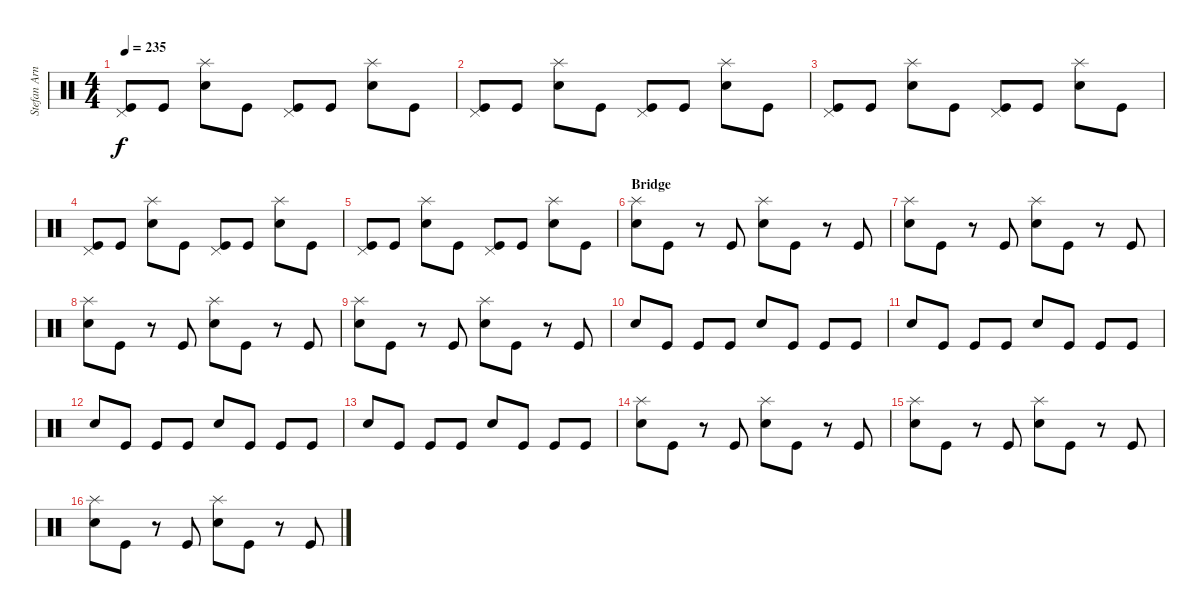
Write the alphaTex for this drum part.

\track ("Stefan Arnold" "Stefan Arn") {instrument percussion}
\staff {score}
\articulation defaults
\ts (4 4)
\tempo 235
\clef neutral
\ks c
("Kick (hit)" "Pedal Hi-Hat (hit)").8{dy f} "Kick (hit)".8 ("Electric Snare (hit)" "Splash (hit)").8 "Kick (hit)".8 ("Kick (hit)" "Pedal Hi-Hat (hit)").8 "Kick (hit)".8 ("Electric Snare (hit)" "Splash (hit)").8 "Kick (hit)".8 |
("Kick (hit)" "Pedal Hi-Hat (hit)").8 "Kick (hit)".8 ("Electric Snare (hit)" "Splash (hit)").8 "Kick (hit)".8 ("Kick (hit)" "Pedal Hi-Hat (hit)").8 "Kick (hit)".8 ("Electric Snare (hit)" "Splash (hit)").8 "Kick (hit)".8 |
("Kick (hit)" "Pedal Hi-Hat (hit)").8 "Kick (hit)".8 ("Electric Snare (hit)" "Splash (hit)").8 "Kick (hit)".8 ("Kick (hit)" "Pedal Hi-Hat (hit)").8 "Kick (hit)".8 ("Electric Snare (hit)" "Splash (hit)").8 "Kick (hit)".8 |
("Kick (hit)" "Pedal Hi-Hat (hit)").8 "Kick (hit)".8 ("Electric Snare (hit)" "Splash (hit)").8 "Kick (hit)".8 ("Kick (hit)" "Pedal Hi-Hat (hit)").8 "Kick (hit)".8 ("Electric Snare (hit)" "Splash (hit)").8 "Kick (hit)".8 |
("Kick (hit)" "Pedal Hi-Hat (hit)").8 "Kick (hit)".8 ("Electric Snare (hit)" "Splash (hit)").8 "Kick (hit)".8 ("Kick (hit)" "Pedal Hi-Hat (hit)").8 "Kick (hit)".8 ("Electric Snare (hit)" "Splash (hit)").8 "Kick (hit)".8 |
\section ("" "Bridge")
("Electric Snare (hit)" "Splash (hit)").8 "Kick (hit)".8 r.8 "Kick (hit)".8 ("Electric Snare (hit)" "Splash (hit)").8 "Kick (hit)".8 r.8 "Kick (hit)".8 |
("Electric Snare (hit)" "Splash (hit)").8 "Kick (hit)".8 r.8 "Kick (hit)".8 ("Electric Snare (hit)" "Splash (hit)").8 "Kick (hit)".8 r.8 "Kick (hit)".8 |
("Electric Snare (hit)" "Splash (hit)").8 "Kick (hit)".8 r.8 "Kick (hit)".8 ("Electric Snare (hit)" "Splash (hit)").8 "Kick (hit)".8 r.8 "Kick (hit)".8 |
("Electric Snare (hit)" "Splash (hit)").8 "Kick (hit)".8 r.8 "Kick (hit)".8 ("Electric Snare (hit)" "Splash (hit)").8 "Kick (hit)".8 r.8 "Kick (hit)".8 |
"Electric Snare (hit)".8 "Kick (hit)".8 "Kick (hit)".8 "Kick (hit)".8 "Electric Snare (hit)".8 "Kick (hit)".8 "Kick (hit)".8 "Kick (hit)".8 |
"Electric Snare (hit)".8 "Kick (hit)".8 "Kick (hit)".8 "Kick (hit)".8 "Electric Snare (hit)".8 "Kick (hit)".8 "Kick (hit)".8 "Kick (hit)".8 |
"Electric Snare (hit)".8 "Kick (hit)".8 "Kick (hit)".8 "Kick (hit)".8 "Electric Snare (hit)".8 "Kick (hit)".8 "Kick (hit)".8 "Kick (hit)".8 |
"Electric Snare (hit)".8 "Kick (hit)".8 "Kick (hit)".8 "Kick (hit)".8 "Electric Snare (hit)".8 "Kick (hit)".8 "Kick (hit)".8 "Kick (hit)".8 |
("Electric Snare (hit)" "Splash (hit)").8 "Kick (hit)".8 r.8 "Kick (hit)".8 ("Electric Snare (hit)" "Splash (hit)").8 "Kick (hit)".8 r.8 "Kick (hit)".8 |
("Electric Snare (hit)" "Splash (hit)").8 "Kick (hit)".8 r.8 "Kick (hit)".8 ("Electric Snare (hit)" "Splash (hit)").8 "Kick (hit)".8 r.8 "Kick (hit)".8 |
("Electric Snare (hit)" "Splash (hit)").8 "Kick (hit)".8 r.8 "Kick (hit)".8 ("Electric Snare (hit)" "Splash (hit)").8 "Kick (hit)".8 r.8 "Kick (hit)".8
